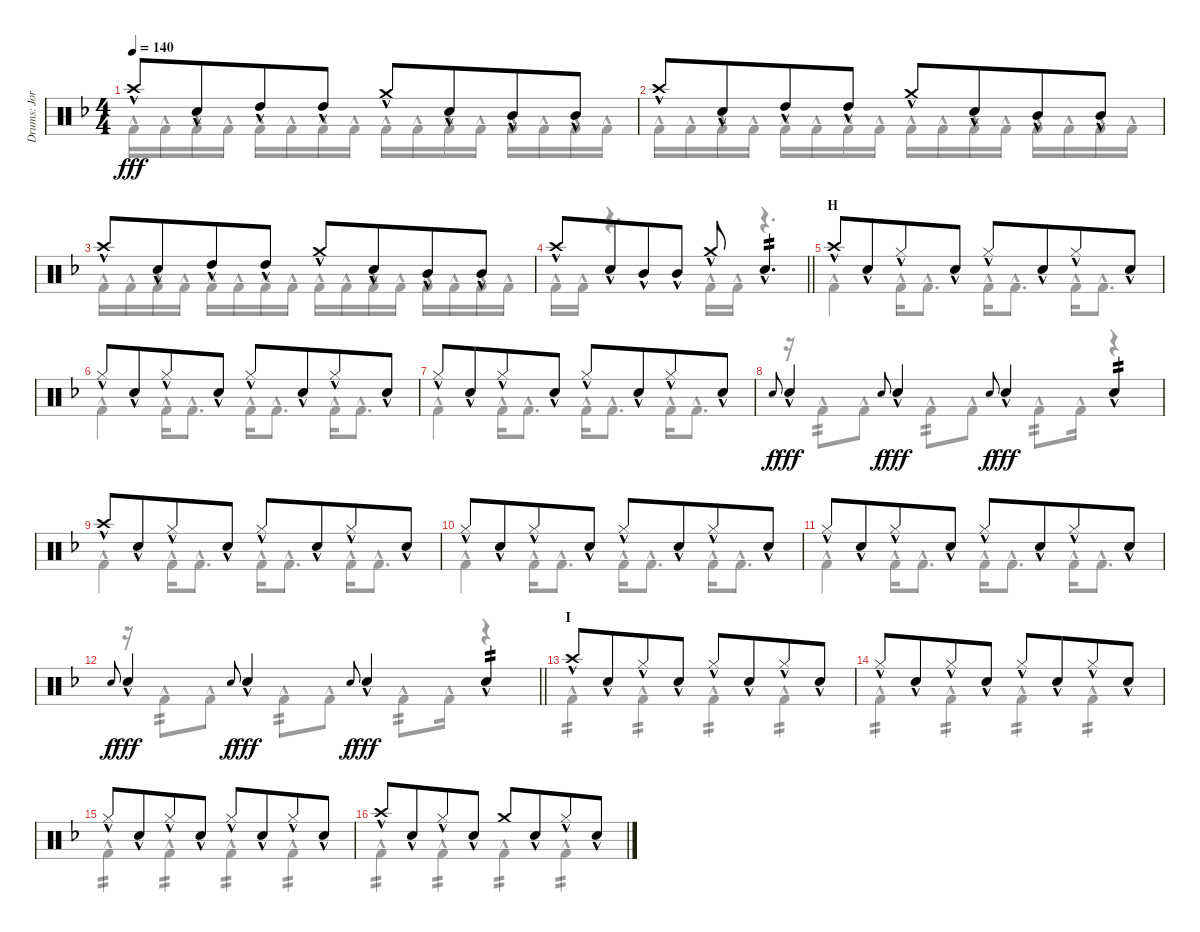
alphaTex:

\track ("Drums: Jorg" "Drums: Jor") {instrument percussion}
\staff {score}
\articulation defaults
\voice
\ts (4 4)
\tempo 140
\clef neutral
\ks f "Crash high (hit)"{hac}.8{dy fff} "Snare (hit) 2"{hac}.8{beam merge} "High Tom (hit)"{hac}.8 "High Tom (hit)"{hac}.8 "Crash medium (hit)"{hac}.8 "Snare (hit) 2"{hac}.8{beam merge} "Mid Tom (hit)"{hac}.8 "Mid Tom (hit)"{hac}.8
|
"Crash high (hit)"{hac}.8 "Snare (hit) 2"{hac}.8{beam merge} "High Tom (hit)"{hac}.8 "High Tom (hit)"{hac}.8 "Crash medium (hit)"{hac}.8 "Snare (hit) 2"{hac}.8{beam merge} "Mid Tom (hit)"{hac}.8 "Mid Tom (hit)"{hac}.8 |
"Crash high (hit)"{hac}.8 "Snare (hit) 2"{hac}.8{beam merge} "High Tom (hit)"{hac}.8 "High Tom (hit)"{hac}.8 "Crash medium (hit)"{hac}.8 "Snare (hit) 2"{hac}.8{beam merge} "Mid Tom (hit)"{hac}.8 "Mid Tom (hit)"{hac}.8 |
\barLineRight lightlight "Crash high (hit)"{hac}.8 "Snare (hit) 2"{hac}.8{beam merge} "Mid Tom (hit)"{hac}.8 "Mid Tom (hit)"{hac}.8 "Crash medium (hit)"{hac}.8 "Snare (hit) 2"{hac}.4{d tp 2}
|
\section ("" "H")
"Crash high (hit)"{hac}.8 "Snare (hit) 2"{hac}.8{beam merge} "Hi-Hat (closed)"{hac}.8 "Snare (hit) 2"{hac}.8 "Hi-Hat (closed)"{hac}.8 "Snare (hit) 2"{hac}.8{beam merge} "Hi-Hat (closed)"{hac}.8 "Snare (hit) 2"{hac}.8 |
"Hi-Hat (closed)"{hac}.8 "Snare (hit) 2"{hac}.8{beam merge} "Hi-Hat (closed)"{hac}.8 "Snare (hit) 2"{hac}.8 "Hi-Hat (closed)"{hac}.8 "Snare (hit) 2"{hac}.8{beam merge} "Hi-Hat (closed)"{hac}.8 "Snare (hit) 2"{hac}.8 |
"Hi-Hat (closed)"{hac}.8 "Snare (hit) 2"{hac}.8{beam merge} "Hi-Hat (closed)"{hac}.8 "Snare (hit) 2"{hac}.8 "Hi-Hat (closed)"{hac}.8 "Snare (hit) 2"{hac}.8{beam merge} "Hi-Hat (closed)"{hac}.8 "Snare (hit) 2"{hac}.8 |
"Snare (hit) 2".8{gr onbeat dy f} "Electric Snare (hit)"{hac}.4{dy fff} "Snare (hit) 2".8{gr onbeat dy f} "Electric Snare (hit)"{hac}.4{dy fff} "Snare (hit) 2".8{gr onbeat dy f} "Electric Snare (hit)"{hac}.4{dy fff} "Snare (hit) 2"{hac}.4{tp 2} |
"Crash high (hit)"{hac}.8 "Snare (hit) 2"{hac}.8{beam merge} "Hi-Hat (closed)"{hac}.8 "Snare (hit) 2"{hac}.8 "Hi-Hat (closed)"{hac}.8 "Snare (hit) 2"{hac}.8{beam merge} "Hi-Hat (closed)"{hac}.8 "Snare (hit) 2"{hac}.8 |
"Hi-Hat (closed)"{hac}.8 "Snare (hit) 2"{hac}.8{beam merge} "Hi-Hat (closed)"{hac}.8 "Snare (hit) 2"{hac}.8 "Hi-Hat (closed)"{hac}.8 "Snare (hit) 2"{hac}.8{beam merge} "Hi-Hat (closed)"{hac}.8 "Snare (hit) 2"{hac}.8 |
"Hi-Hat (closed)"{hac}.8 "Snare (hit) 2"{hac}.8{beam merge} "Hi-Hat (closed)"{hac}.8 "Snare (hit) 2"{hac}.8 "Hi-Hat (closed)"{hac}.8 "Snare (hit) 2"{hac}.8{beam merge} "Hi-Hat (closed)"{hac}.8 "Snare (hit) 2"{hac}.8 |
\barLineRight lightlight "Snare (hit) 2".8{gr onbeat dy f} "Electric Snare (hit)"{hac}.4{dy fff} "Snare (hit) 2".8{gr onbeat dy f} "Electric Snare (hit)"{hac}.4{dy fff} "Snare (hit) 2".8{gr onbeat dy f} "Electric Snare (hit)"{hac}.4{dy fff} "Snare (hit) 2"{hac}.4{tp 2}
|
\section ("" "I")
"Crash high (hit)"{hac}.8 "Snare (hit) 2"{hac}.8{beam merge} "Hi-Hat (closed)"{hac}.8 "Snare (hit) 2"{hac}.8 "Hi-Hat (closed)"{hac}.8 "Snare (hit) 2"{hac}.8{beam merge} "Hi-Hat (closed)"{hac}.8 "Snare (hit) 2"{hac}.8 |
"Hi-Hat (closed)"{hac}.8 "Snare (hit) 2"{hac}.8{beam merge} "Hi-Hat (closed)"{hac}.8 "Snare (hit) 2"{hac}.8 "Hi-Hat (closed)"{hac}.8 "Snare (hit) 2"{hac}.8{beam merge} "Hi-Hat (closed)"{hac}.8 "Snare (hit) 2"{hac}.8 |
"Hi-Hat (closed)"{hac}.8 "Snare (hit) 2"{hac}.8{beam merge} "Hi-Hat (closed)"{hac}.8 "Snare (hit) 2"{hac}.8 "Hi-Hat (closed)"{hac}.8 "Snare (hit) 2"{hac}.8{beam merge} "Hi-Hat (closed)"{hac}.8 "Snare (hit) 2"{hac}.8 |
"Crash high (hit)"{hac}.8 "Snare (hit) 2"{hac}.8{beam merge} "Hi-Hat (closed)"{hac}.8 "Snare (hit) 2"{hac}.8 "Crash medium (hit)".8 "Snare (hit) 2"{hac}.8{beam merge} "Hi-Hat (closed)"{hac}.8 "Snare (hit) 2"{hac}.8
\voice
\clef neutral
\ottava regular
\simile none
\ks f "Kick (hit) 2"{hac}.16{dy fff} "Kick (hit) 2"{hac}.16 "Kick (hit) 2"{hac}.16 "Kick (hit) 2"{hac}.16 "Kick (hit) 2"{hac}.16 "Kick (hit) 2"{hac}.16 "Kick (hit) 2"{hac}.16 "Kick (hit) 2"{hac}.16 "Kick (hit) 2"{hac}.16 "Kick (hit) 2"{hac}.16 "Kick (hit) 2"{hac}.16 "Kick (hit) 2"{hac}.16 "Kick (hit) 2"{hac}.16 "Kick (hit) 2"{hac}.16 "Kick (hit) 2"{hac}.16 "Kick (hit) 2"{hac}.16
|
"Kick (hit) 2"{hac}.16 "Kick (hit) 2"{hac}.16 "Kick (hit) 2"{hac}.16 "Kick (hit) 2"{hac}.16 "Kick (hit) 2"{hac}.16 "Kick (hit) 2"{hac}.16 "Kick (hit) 2"{hac}.16 "Kick (hit) 2"{hac}.16 "Kick (hit) 2"{hac}.16 "Kick (hit) 2"{hac}.16 "Kick (hit) 2"{hac}.16 "Kick (hit) 2"{hac}.16 "Kick (hit) 2"{hac}.16 "Kick (hit) 2"{hac}.16 "Kick (hit) 2"{hac}.16 "Kick (hit) 2"{hac}.16 |
"Kick (hit) 2"{hac}.16 "Kick (hit) 2"{hac}.16 "Kick (hit) 2"{hac}.16 "Kick (hit) 2"{hac}.16 "Kick (hit) 2"{hac}.16 "Kick (hit) 2"{hac}.16 "Kick (hit) 2"{hac}.16 "Kick (hit) 2"{hac}.16 "Kick (hit) 2"{hac}.16 "Kick (hit) 2"{hac}.16 "Kick (hit) 2"{hac}.16 "Kick (hit) 2"{hac}.16 "Kick (hit) 2"{hac}.16 "Kick (hit) 2"{hac}.16 "Kick (hit) 2"{hac}.16 "Kick (hit) 2"{hac}.16 |
\barLineRight lightlight "Kick (hit) 2"{hac}.16 "Kick (hit) 2"{hac}.16
r.4{d} "Kick (hit) 2"{hac}.16 "Kick (hit) 2"{hac}.16 r.4{d} |
"Kick (hit) 2"{hac}.4 "Kick (hit) 2"{hac}.16 "Kick (hit) 2"{hac}.8{d} "Kick (hit) 2"{hac}.16 "Kick (hit) 2"{hac}.8{d} "Kick (hit) 2"{hac}.16 "Kick (hit) 2"{hac}.8{d} |
"Kick (hit) 2"{hac}.4 "Kick (hit) 2"{hac}.16 "Kick (hit) 2"{hac}.8{d} "Kick (hit) 2"{hac}.16 "Kick (hit) 2"{hac}.8{d} "Kick (hit) 2"{hac}.16 "Kick (hit) 2"{hac}.8{d} |
"Kick (hit) 2"{hac}.4 "Kick (hit) 2"{hac}.16 "Kick (hit) 2"{hac}.8{d} "Kick (hit) 2"{hac}.16 "Kick (hit) 2"{hac}.8{d} "Kick (hit) 2"{hac}.16 "Kick (hit) 2"{hac}.8{d} |
r.16 "Kick (hit) 2"{hac}.8{tp 2} "Kick (hit) 2"{hac}.8 "Kick (hit) 2"{hac}.8{tp 2} "Kick (hit) 2"{hac}.8 "Kick (hit) 2"{hac}.8{tp 2} "Kick (hit) 2"{hac}.16 r.4 |
"Kick (hit) 2"{hac}.4 "Kick (hit) 2"{hac}.16 "Kick (hit) 2"{hac}.8{d} "Kick (hit) 2"{hac}.16 "Kick (hit) 2"{hac}.8{d} "Kick (hit) 2"{hac}.16 "Kick (hit) 2"{hac}.8{d} |
"Kick (hit) 2"{hac}.4 "Kick (hit) 2"{hac}.16 "Kick (hit) 2"{hac}.8{d} "Kick (hit) 2"{hac}.16 "Kick (hit) 2"{hac}.8{d} "Kick (hit) 2"{hac}.16 "Kick (hit) 2"{hac}.8{d} |
"Kick (hit) 2"{hac}.4 "Kick (hit) 2"{hac}.16 "Kick (hit) 2"{hac}.8{d} "Kick (hit) 2"{hac}.16 "Kick (hit) 2"{hac}.8{d} "Kick (hit) 2"{hac}.16 "Kick (hit) 2"{hac}.8{d} |
\barLineRight lightlight
r.16 "Kick (hit) 2"{hac}.8{tp 2} "Kick (hit) 2"{hac}.8 "Kick (hit) 2"{hac}.8{tp 2} "Kick (hit) 2"{hac}.8 "Kick (hit) 2"{hac}.8{tp 2} "Kick (hit) 2"{hac}.16 r.4 |
"Kick (hit) 2"{hac}.4{tp 2 beam merge} "Kick (hit) 2"{hac}.4{tp 2} "Kick (hit) 2"{hac}.4{tp 2} "Kick (hit) 2"{hac}.4{tp 2} |
"Kick (hit) 2"{hac}.4{tp 2 beam merge} "Kick (hit) 2"{hac}.4{tp 2} "Kick (hit) 2"{hac}.4{tp 2} "Kick (hit) 2"{hac}.4{tp 2} |
"Kick (hit) 2"{hac}.4{tp 2 beam merge} "Kick (hit) 2"{hac}.4{tp 2} "Kick (hit) 2"{hac}.4{tp 2} "Kick (hit) 2"{hac}.4{tp 2} |
"Kick (hit) 2"{hac}.4{tp 2 beam merge} "Kick (hit) 2"{hac}.4{tp 2} "Kick (hit) 2"{hac}.4{tp 2} "Kick (hit) 2"{hac}.4{tp 2}
